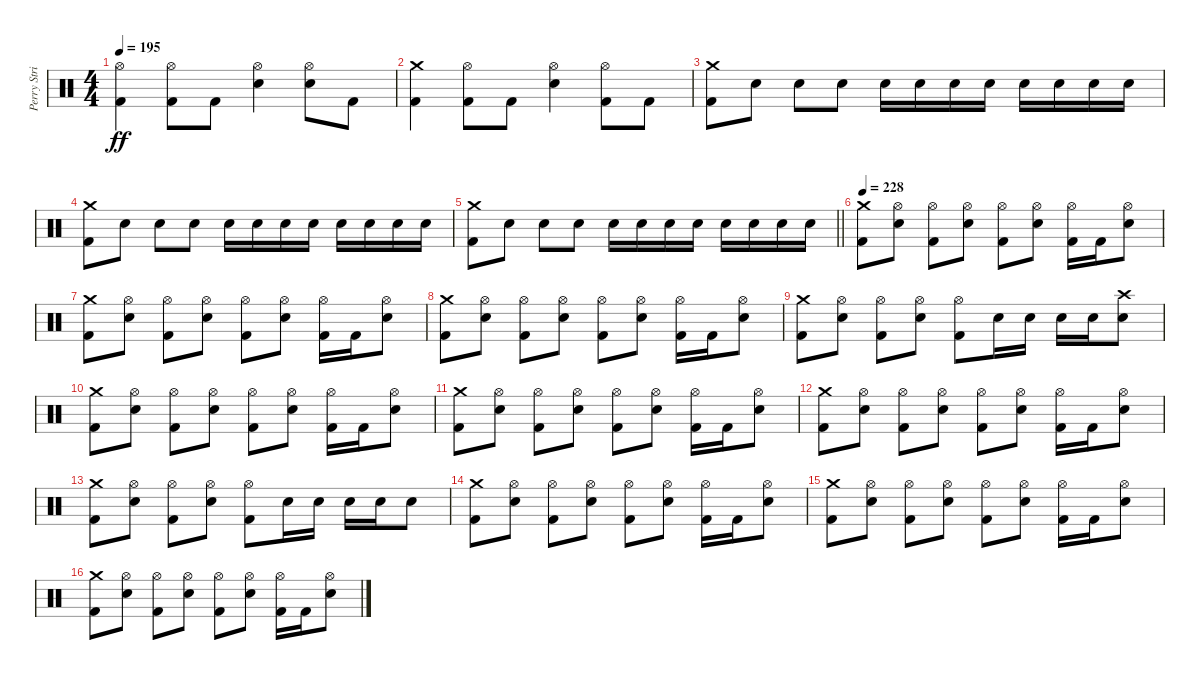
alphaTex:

\track ("Perry Strickland" "Perry Stri") {instrument percussion}
\staff {score}
\articulation defaults
\ts (4 4)
\tempo 195
\clef neutral
\ks c
("Hi-Hat (open)" "Kick (hit) 2").4{dy ff} ("Hi-Hat (open)" "Kick (hit) 2").8 "Kick (hit) 2".8 ("Hi-Hat (open)" "Snare (hit) 2").4 ("Hi-Hat (open)" "Snare (hit) 2").8 "Kick (hit) 2".8 |
("Crash medium (hit)" "Kick (hit) 2").4 ("Hi-Hat (open)" "Kick (hit) 2").8 "Kick (hit) 2".8 ("Hi-Hat (open)" "Snare (hit) 2").4 ("Hi-Hat (open)" "Kick (hit) 2").8 "Kick (hit) 2".8 |
("Crash medium (hit)" "Kick (hit) 2").8 "Snare (hit) 2".8 "Snare (hit) 2".8 "Snare (hit) 2".8 "Snare (hit) 2".16 "Snare (hit) 2".16 "Snare (hit) 2".16 "Snare (hit) 2".16 "Snare (hit) 2".16 "Snare (hit) 2".16 "Snare (hit) 2".16 "Snare (hit) 2".16 |
("Crash medium (hit)" "Kick (hit) 2").8 "Snare (hit) 2".8 "Snare (hit) 2".8 "Snare (hit) 2".8 "Snare (hit) 2".16 "Snare (hit) 2".16 "Snare (hit) 2".16 "Snare (hit) 2".16 "Snare (hit) 2".16 "Snare (hit) 2".16 "Snare (hit) 2".16 "Snare (hit) 2".16 |
\barLineRight lightlight
("Crash medium (hit)" "Kick (hit) 2").8 "Snare (hit) 2".8 "Snare (hit) 2".8 "Snare (hit) 2".8 "Snare (hit) 2".16 "Snare (hit) 2".16 "Snare (hit) 2".16 "Snare (hit) 2".16 "Snare (hit) 2".16 "Snare (hit) 2".16 "Snare (hit) 2".16 "Snare (hit) 2".16 |
\tempo 228
("Crash medium (hit)" "Kick (hit) 2").8 ("Hi-Hat (open)" "Snare (hit) 2").8 ("Hi-Hat (open)" "Kick (hit) 2").8 ("Hi-Hat (open)" "Snare (hit) 2").8 ("Hi-Hat (open)" "Kick (hit) 2").8 ("Hi-Hat (open)" "Snare (hit) 2").8 ("Hi-Hat (open)" "Kick (hit) 2").16 "Kick (hit) 2".16 ("Hi-Hat (open)" "Snare (hit) 2").8 |
("Crash medium (hit)" "Kick (hit) 2").8 ("Hi-Hat (open)" "Snare (hit) 2").8 ("Hi-Hat (open)" "Kick (hit) 2").8 ("Hi-Hat (open)" "Snare (hit) 2").8 ("Hi-Hat (open)" "Kick (hit) 2").8 ("Hi-Hat (open)" "Snare (hit) 2").8 ("Hi-Hat (open)" "Kick (hit) 2").16 "Kick (hit) 2".16 ("Hi-Hat (open)" "Snare (hit) 2").8 |
("Crash medium (hit)" "Kick (hit) 2").8 ("Hi-Hat (open)" "Snare (hit) 2").8 ("Hi-Hat (open)" "Kick (hit) 2").8 ("Hi-Hat (open)" "Snare (hit) 2").8 ("Hi-Hat (open)" "Kick (hit) 2").8 ("Hi-Hat (open)" "Snare (hit) 2").8 ("Hi-Hat (open)" "Kick (hit) 2").16 "Kick (hit) 2".16 ("Hi-Hat (open)" "Snare (hit) 2").8 |
("Crash medium (hit)" "Kick (hit) 2").8 ("Hi-Hat (open)" "Snare (hit) 2").8 ("Hi-Hat (open)" "Kick (hit) 2").8 ("Hi-Hat (open)" "Snare (hit) 2").8 ("Hi-Hat (open)" "Kick (hit) 2").8 "Snare (hit) 2".16 "Snare (hit) 2".16 "Snare (hit) 2".16 "Snare (hit) 2".16 ("Crash high (hit)" "Snare (hit) 2").8 |
("Crash medium (hit)" "Kick (hit) 2").8 ("Hi-Hat (open)" "Snare (hit) 2").8 ("Hi-Hat (open)" "Kick (hit) 2").8 ("Hi-Hat (open)" "Snare (hit) 2").8 ("Hi-Hat (open)" "Kick (hit) 2").8 ("Hi-Hat (open)" "Snare (hit) 2").8 ("Hi-Hat (open)" "Kick (hit) 2").16 "Kick (hit) 2".16 ("Hi-Hat (open)" "Snare (hit) 2").8 |
("Crash medium (hit)" "Kick (hit) 2").8 ("Hi-Hat (open)" "Snare (hit) 2").8 ("Hi-Hat (open)" "Kick (hit) 2").8 ("Hi-Hat (open)" "Snare (hit) 2").8 ("Hi-Hat (open)" "Kick (hit) 2").8 ("Hi-Hat (open)" "Snare (hit) 2").8 ("Hi-Hat (open)" "Kick (hit) 2").16 "Kick (hit) 2".16 ("Hi-Hat (open)" "Snare (hit) 2").8 |
("Crash medium (hit)" "Kick (hit) 2").8 ("Hi-Hat (open)" "Snare (hit) 2").8 ("Hi-Hat (open)" "Kick (hit) 2").8 ("Hi-Hat (open)" "Snare (hit) 2").8 ("Hi-Hat (open)" "Kick (hit) 2").8 ("Hi-Hat (open)" "Snare (hit) 2").8 ("Hi-Hat (open)" "Kick (hit) 2").16 "Kick (hit) 2".16 ("Hi-Hat (open)" "Snare (hit) 2").8 |
("Crash medium (hit)" "Kick (hit) 2").8 ("Hi-Hat (open)" "Snare (hit) 2").8 ("Hi-Hat (open)" "Kick (hit) 2").8 ("Hi-Hat (open)" "Snare (hit) 2").8 ("Hi-Hat (open)" "Kick (hit) 2").8 "Snare (hit) 2".16 "Snare (hit) 2".16 "Snare (hit) 2".16 "Snare (hit) 2".16 "Snare (hit) 2".8 |
("Crash medium (hit)" "Kick (hit) 2").8 ("Hi-Hat (open)" "Snare (hit) 2").8 ("Hi-Hat (open)" "Kick (hit) 2").8 ("Hi-Hat (open)" "Snare (hit) 2").8 ("Hi-Hat (open)" "Kick (hit) 2").8 ("Hi-Hat (open)" "Snare (hit) 2").8 ("Hi-Hat (open)" "Kick (hit) 2").16 "Kick (hit) 2".16 ("Hi-Hat (open)" "Snare (hit) 2").8 |
("Crash medium (hit)" "Kick (hit) 2").8 ("Hi-Hat (open)" "Snare (hit) 2").8 ("Hi-Hat (open)" "Kick (hit) 2").8 ("Hi-Hat (open)" "Snare (hit) 2").8 ("Hi-Hat (open)" "Kick (hit) 2").8 ("Hi-Hat (open)" "Snare (hit) 2").8 ("Hi-Hat (open)" "Kick (hit) 2").16 "Kick (hit) 2".16 ("Hi-Hat (open)" "Snare (hit) 2").8 |
("Crash medium (hit)" "Kick (hit) 2").8 ("Hi-Hat (open)" "Snare (hit) 2").8 ("Hi-Hat (open)" "Kick (hit) 2").8 ("Hi-Hat (open)" "Snare (hit) 2").8 ("Hi-Hat (open)" "Kick (hit) 2").8 ("Hi-Hat (open)" "Snare (hit) 2").8 ("Hi-Hat (open)" "Kick (hit) 2").16 "Kick (hit) 2".16 ("Hi-Hat (open)" "Snare (hit) 2").8
